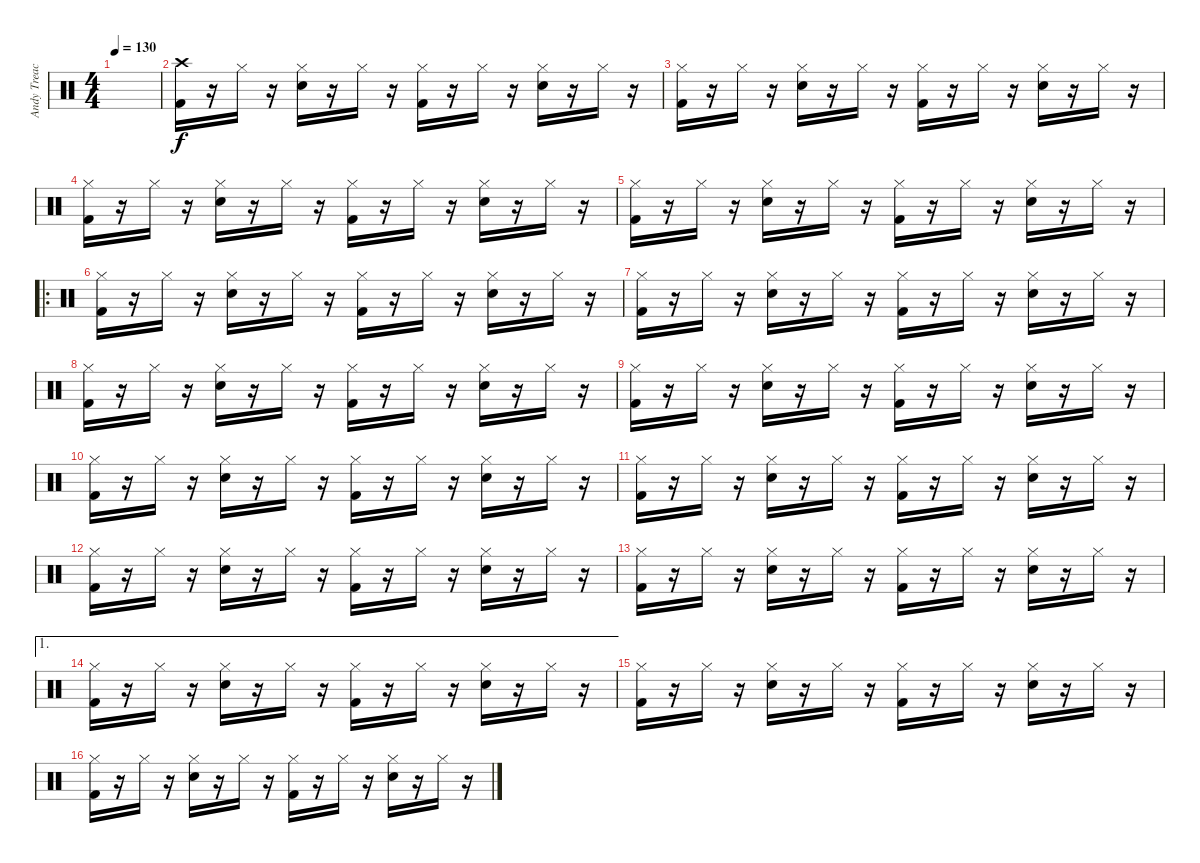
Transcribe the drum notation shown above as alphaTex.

\track ("Andy Treacey" "Andy Treac") {instrument percussion}
\staff {score}
\articulation defaults
\ts (4 4)
\tempo 130
\clef neutral
\ks c
|
("Crash high (hit)" "Kick (hit) 2").16 r.16 "Hi-Hat (closed)".16 r.16 ("Hi-Hat (closed)" "Snare (hit) 2").16 r.16 "Hi-Hat (closed)".16 r.16 ("Hi-Hat (closed)" "Kick (hit) 2").16 r.16 "Hi-Hat (closed)".16 r.16 ("Hi-Hat (closed)" "Snare (hit) 2").16 r.16 "Hi-Hat (closed)".16 r.16 |
("Hi-Hat (closed)" "Kick (hit) 2").16 r.16 "Hi-Hat (closed)".16 r.16 ("Hi-Hat (closed)" "Snare (hit) 2").16 r.16 "Hi-Hat (closed)".16 r.16 ("Hi-Hat (closed)" "Kick (hit) 2").16 r.16 "Hi-Hat (closed)".16 r.16 ("Hi-Hat (closed)" "Snare (hit) 2").16 r.16 "Hi-Hat (closed)".16 r.16 |
("Hi-Hat (closed)" "Kick (hit) 2").16 r.16 "Hi-Hat (closed)".16 r.16 ("Hi-Hat (closed)" "Snare (hit) 2").16 r.16 "Hi-Hat (closed)".16 r.16 ("Hi-Hat (closed)" "Kick (hit) 2").16 r.16 "Hi-Hat (closed)".16 r.16 ("Hi-Hat (closed)" "Snare (hit) 2").16 r.16 "Hi-Hat (closed)".16 r.16 |
("Hi-Hat (closed)" "Kick (hit) 2").16 r.16 "Hi-Hat (closed)".16 r.16 ("Hi-Hat (closed)" "Snare (hit) 2").16 r.16 "Hi-Hat (closed)".16 r.16 ("Hi-Hat (closed)" "Kick (hit) 2").16 r.16 "Hi-Hat (closed)".16 r.16 ("Hi-Hat (closed)" "Snare (hit) 2").16 r.16 "Hi-Hat (closed)".16 r.16 |
\ro
("Hi-Hat (closed)" "Kick (hit) 2").16 r.16 "Hi-Hat (closed)".16 r.16 ("Hi-Hat (closed)" "Snare (hit) 2").16 r.16 "Hi-Hat (closed)".16 r.16 ("Hi-Hat (closed)" "Kick (hit) 2").16 r.16 "Hi-Hat (closed)".16 r.16 ("Hi-Hat (closed)" "Snare (hit) 2").16 r.16 "Hi-Hat (closed)".16 r.16 |
("Hi-Hat (closed)" "Kick (hit) 2").16 r.16 "Hi-Hat (closed)".16 r.16 ("Hi-Hat (closed)" "Snare (hit) 2").16 r.16 "Hi-Hat (closed)".16 r.16 ("Hi-Hat (closed)" "Kick (hit) 2").16 r.16 "Hi-Hat (closed)".16 r.16 ("Hi-Hat (closed)" "Snare (hit) 2").16 r.16 "Hi-Hat (closed)".16 r.16 |
("Hi-Hat (closed)" "Kick (hit) 2").16 r.16 "Hi-Hat (closed)".16 r.16 ("Hi-Hat (closed)" "Snare (hit) 2").16 r.16 "Hi-Hat (closed)".16 r.16 ("Hi-Hat (closed)" "Kick (hit) 2").16 r.16 "Hi-Hat (closed)".16 r.16 ("Hi-Hat (closed)" "Snare (hit) 2").16 r.16 "Hi-Hat (closed)".16 r.16 |
("Hi-Hat (closed)" "Kick (hit) 2").16 r.16 "Hi-Hat (closed)".16 r.16 ("Hi-Hat (closed)" "Snare (hit) 2").16 r.16 "Hi-Hat (closed)".16 r.16 ("Hi-Hat (closed)" "Kick (hit) 2").16 r.16 "Hi-Hat (closed)".16 r.16 ("Hi-Hat (closed)" "Snare (hit) 2").16 r.16 "Hi-Hat (closed)".16 r.16 |
("Hi-Hat (closed)" "Kick (hit) 2").16 r.16 "Hi-Hat (closed)".16 r.16 ("Hi-Hat (closed)" "Snare (hit) 2").16 r.16 "Hi-Hat (closed)".16 r.16 ("Hi-Hat (closed)" "Kick (hit) 2").16 r.16 "Hi-Hat (closed)".16 r.16 ("Hi-Hat (closed)" "Snare (hit) 2").16 r.16 "Hi-Hat (closed)".16 r.16 |
("Hi-Hat (closed)" "Kick (hit) 2").16 r.16 "Hi-Hat (closed)".16 r.16 ("Hi-Hat (closed)" "Snare (hit) 2").16 r.16 "Hi-Hat (closed)".16 r.16 ("Hi-Hat (closed)" "Kick (hit) 2").16 r.16 "Hi-Hat (closed)".16 r.16 ("Hi-Hat (closed)" "Snare (hit) 2").16 r.16 "Hi-Hat (closed)".16 r.16 |
("Hi-Hat (closed)" "Kick (hit) 2").16 r.16 "Hi-Hat (closed)".16 r.16 ("Hi-Hat (closed)" "Snare (hit) 2").16 r.16 "Hi-Hat (closed)".16 r.16 ("Hi-Hat (closed)" "Kick (hit) 2").16 r.16 "Hi-Hat (closed)".16 r.16 ("Hi-Hat (closed)" "Snare (hit) 2").16 r.16 "Hi-Hat (closed)".16 r.16 |
("Hi-Hat (closed)" "Kick (hit) 2").16 r.16 "Hi-Hat (closed)".16 r.16 ("Hi-Hat (closed)" "Snare (hit) 2").16 r.16 "Hi-Hat (closed)".16 r.16 ("Hi-Hat (closed)" "Kick (hit) 2").16 r.16 "Hi-Hat (closed)".16 r.16 ("Hi-Hat (closed)" "Snare (hit) 2").16 r.16 "Hi-Hat (closed)".16 r.16 |
\ae 1
("Hi-Hat (closed)" "Kick (hit) 2").16 r.16 "Hi-Hat (closed)".16 r.16 ("Hi-Hat (closed)" "Snare (hit) 2").16 r.16 "Hi-Hat (closed)".16 r.16 ("Hi-Hat (closed)" "Kick (hit) 2").16 r.16 "Hi-Hat (closed)".16 r.16 ("Hi-Hat (closed)" "Snare (hit) 2").16 r.16 "Hi-Hat (closed)".16 r.16 |
("Hi-Hat (closed)" "Kick (hit) 2").16 r.16 "Hi-Hat (closed)".16 r.16 ("Hi-Hat (closed)" "Snare (hit) 2").16 r.16 "Hi-Hat (closed)".16 r.16 ("Hi-Hat (closed)" "Kick (hit) 2").16 r.16 "Hi-Hat (closed)".16 r.16 ("Hi-Hat (closed)" "Snare (hit) 2").16 r.16 "Hi-Hat (closed)".16 r.16 |
("Hi-Hat (closed)" "Kick (hit) 2").16 r.16 "Hi-Hat (closed)".16 r.16 ("Hi-Hat (closed)" "Snare (hit) 2").16 r.16 "Hi-Hat (closed)".16 r.16 ("Hi-Hat (closed)" "Kick (hit) 2").16 r.16 "Hi-Hat (closed)".16 r.16 ("Hi-Hat (closed)" "Snare (hit) 2").16 r.16 "Hi-Hat (closed)".16 r.16
